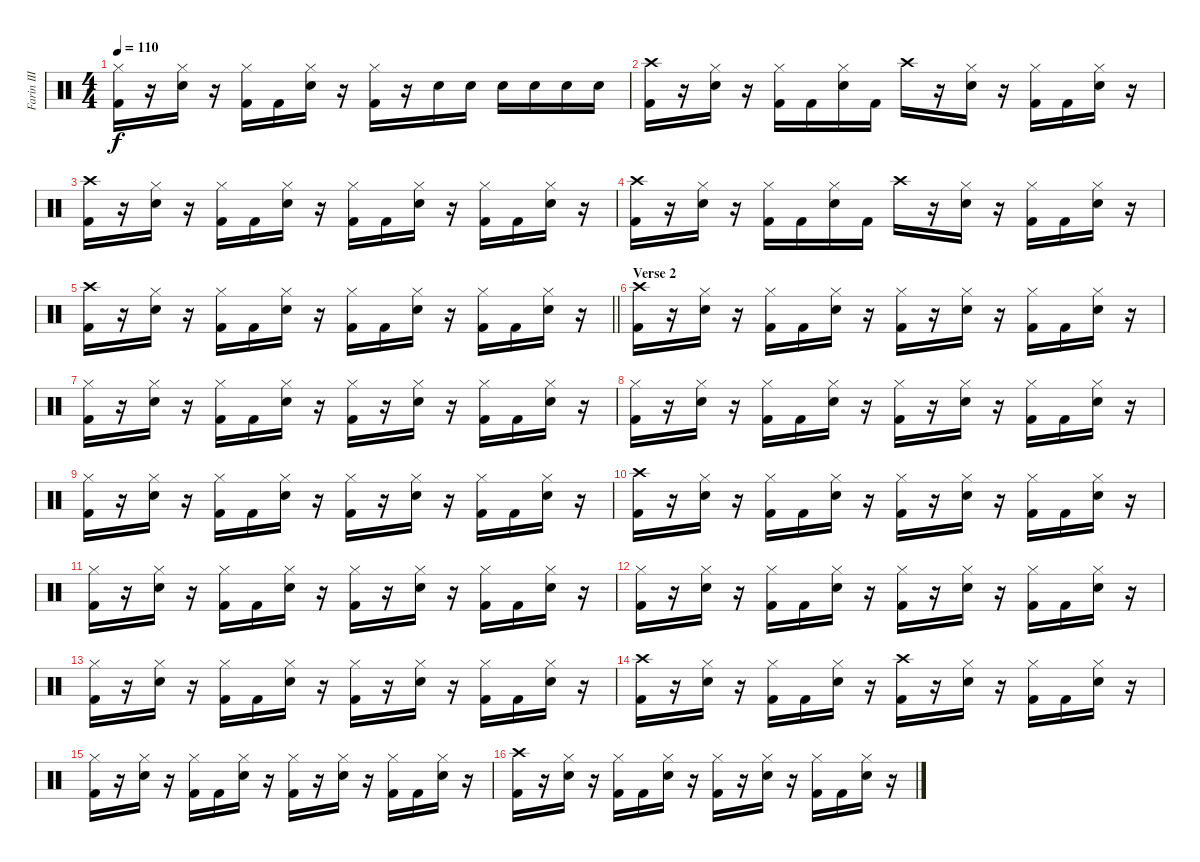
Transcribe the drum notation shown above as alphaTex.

\track ("Farin III" "Farin III") {instrument percussion}
\staff {score}
\articulation defaults
\ts (4 4)
\tempo 110
\clef neutral
\ks c
("Hi-Hat (closed)" "Kick (hit) 2").16{dy f} r.16 ("Hi-Hat (closed)" "Snare (hit) 2").16 r.16 ("Hi-Hat (closed)" "Kick (hit) 2").16 "Kick (hit) 2".16 ("Hi-Hat (closed)" "Snare (hit) 2").16 r.16 ("Hi-Hat (closed)" "Kick (hit) 2").16 r.16 "Snare (hit) 2".16 "Snare (hit) 2".16 "Snare (hit) 2".16 "Snare (hit) 2".16 "Snare (hit) 2".16 "Snare (hit) 2".16 |
("Crash high (hit)" "Kick (hit) 2").16 r.16 ("Hi-Hat (closed)" "Snare (hit) 2").16 r.16 ("Hi-Hat (closed)" "Kick (hit) 2").16 "Kick (hit) 2".16 ("Hi-Hat (closed)" "Snare (hit) 2").16 "Kick (hit) 2".16 "Crash high (hit)".16 r.16 ("Hi-Hat (closed)" "Snare (hit) 2").16 r.16 ("Hi-Hat (closed)" "Kick (hit) 2").16 "Kick (hit) 2".16 ("Hi-Hat (closed)" "Snare (hit) 2").16 r.16 |
("Crash high (hit)" "Kick (hit) 2").16 r.16 ("Hi-Hat (closed)" "Snare (hit) 2").16 r.16 ("Hi-Hat (closed)" "Kick (hit) 2").16 "Kick (hit) 2".16 ("Hi-Hat (closed)" "Snare (hit) 2").16 r.16 ("Hi-Hat (closed)" "Kick (hit) 2").16 "Kick (hit) 2".16 ("Hi-Hat (closed)" "Snare (hit) 2").16 r.16 ("Hi-Hat (closed)" "Kick (hit) 2").16 "Kick (hit) 2".16 ("Hi-Hat (closed)" "Snare (hit) 2").16 r.16 |
("Crash high (hit)" "Kick (hit) 2").16 r.16 ("Hi-Hat (closed)" "Snare (hit) 2").16 r.16 ("Hi-Hat (closed)" "Kick (hit) 2").16 "Kick (hit) 2".16 ("Hi-Hat (closed)" "Snare (hit) 2").16 "Kick (hit) 2".16 "Crash high (hit)".16 r.16 ("Hi-Hat (closed)" "Snare (hit) 2").16 r.16 ("Hi-Hat (closed)" "Kick (hit) 2").16 "Kick (hit) 2".16 ("Hi-Hat (closed)" "Snare (hit) 2").16 r.16 |
\barLineRight lightlight
("Crash high (hit)" "Kick (hit) 2").16 r.16 ("Hi-Hat (closed)" "Snare (hit) 2").16 r.16 ("Hi-Hat (closed)" "Kick (hit) 2").16 "Kick (hit) 2".16 ("Hi-Hat (closed)" "Snare (hit) 2").16 r.16 ("Hi-Hat (closed)" "Kick (hit) 2").16 "Kick (hit) 2".16 ("Hi-Hat (closed)" "Snare (hit) 2").16 r.16 ("Hi-Hat (closed)" "Kick (hit) 2").16 "Kick (hit) 2".16 ("Hi-Hat (closed)" "Snare (hit) 2").16 r.16 |
\section ("" "Verse 2")
("Crash high (hit)" "Kick (hit) 2").16 r.16 ("Hi-Hat (closed)" "Snare (hit) 2").16 r.16 ("Hi-Hat (closed)" "Kick (hit) 2").16 "Kick (hit) 2".16 ("Hi-Hat (closed)" "Snare (hit) 2").16 r.16 ("Hi-Hat (closed)" "Kick (hit) 2").16 r.16 ("Hi-Hat (closed)" "Snare (hit) 2").16 r.16 ("Hi-Hat (closed)" "Kick (hit) 2").16 "Kick (hit) 2".16 ("Hi-Hat (closed)" "Snare (hit) 2").16 r.16 |
("Hi-Hat (closed)" "Kick (hit) 2").16 r.16 ("Hi-Hat (closed)" "Snare (hit) 2").16 r.16 ("Hi-Hat (closed)" "Kick (hit) 2").16 "Kick (hit) 2".16 ("Hi-Hat (closed)" "Snare (hit) 2").16 r.16 ("Hi-Hat (closed)" "Kick (hit) 2").16 r.16 ("Hi-Hat (closed)" "Snare (hit) 2").16 r.16 ("Hi-Hat (closed)" "Kick (hit) 2").16 "Kick (hit) 2".16 ("Hi-Hat (closed)" "Snare (hit) 2").16 r.16 |
("Hi-Hat (closed)" "Kick (hit) 2").16 r.16 ("Hi-Hat (closed)" "Snare (hit) 2").16 r.16 ("Hi-Hat (closed)" "Kick (hit) 2").16 "Kick (hit) 2".16 ("Hi-Hat (closed)" "Snare (hit) 2").16 r.16 ("Hi-Hat (closed)" "Kick (hit) 2").16 r.16 ("Hi-Hat (closed)" "Snare (hit) 2").16 r.16 ("Hi-Hat (closed)" "Kick (hit) 2").16 "Kick (hit) 2".16 ("Hi-Hat (closed)" "Snare (hit) 2").16 r.16 |
("Hi-Hat (closed)" "Kick (hit) 2").16 r.16 ("Hi-Hat (closed)" "Snare (hit) 2").16 r.16 ("Hi-Hat (closed)" "Kick (hit) 2").16 "Kick (hit) 2".16 ("Hi-Hat (closed)" "Snare (hit) 2").16 r.16 ("Hi-Hat (closed)" "Kick (hit) 2").16 r.16 ("Hi-Hat (closed)" "Snare (hit) 2").16 r.16 ("Hi-Hat (closed)" "Kick (hit) 2").16 "Kick (hit) 2".16 ("Hi-Hat (closed)" "Snare (hit) 2").16 r.16 |
("Crash high (hit)" "Kick (hit) 2").16 r.16 ("Hi-Hat (closed)" "Snare (hit) 2").16 r.16 ("Hi-Hat (closed)" "Kick (hit) 2").16 "Kick (hit) 2".16 ("Hi-Hat (closed)" "Snare (hit) 2").16 r.16 ("Hi-Hat (closed)" "Kick (hit) 2").16 r.16 ("Hi-Hat (closed)" "Snare (hit) 2").16 r.16 ("Hi-Hat (closed)" "Kick (hit) 2").16 "Kick (hit) 2".16 ("Hi-Hat (closed)" "Snare (hit) 2").16 r.16 |
("Hi-Hat (closed)" "Kick (hit) 2").16 r.16 ("Hi-Hat (closed)" "Snare (hit) 2").16 r.16 ("Hi-Hat (closed)" "Kick (hit) 2").16 "Kick (hit) 2".16 ("Hi-Hat (closed)" "Snare (hit) 2").16 r.16 ("Hi-Hat (closed)" "Kick (hit) 2").16 r.16 ("Hi-Hat (closed)" "Snare (hit) 2").16 r.16 ("Hi-Hat (closed)" "Kick (hit) 2").16 "Kick (hit) 2".16 ("Hi-Hat (closed)" "Snare (hit) 2").16 r.16 |
("Hi-Hat (closed)" "Kick (hit) 2").16 r.16 ("Hi-Hat (closed)" "Snare (hit) 2").16 r.16 ("Hi-Hat (closed)" "Kick (hit) 2").16 "Kick (hit) 2".16 ("Hi-Hat (closed)" "Snare (hit) 2").16 r.16 ("Hi-Hat (closed)" "Kick (hit) 2").16 r.16 ("Hi-Hat (closed)" "Snare (hit) 2").16 r.16 ("Hi-Hat (closed)" "Kick (hit) 2").16 "Kick (hit) 2".16 ("Hi-Hat (closed)" "Snare (hit) 2").16 r.16 |
("Hi-Hat (closed)" "Kick (hit) 2").16 r.16 ("Hi-Hat (closed)" "Snare (hit) 2").16 r.16 ("Hi-Hat (closed)" "Kick (hit) 2").16 "Kick (hit) 2".16 ("Hi-Hat (closed)" "Snare (hit) 2").16 r.16 ("Hi-Hat (closed)" "Kick (hit) 2").16 r.16 ("Hi-Hat (closed)" "Snare (hit) 2").16 r.16 ("Hi-Hat (closed)" "Kick (hit) 2").16 "Kick (hit) 2".16 ("Hi-Hat (closed)" "Snare (hit) 2").16 r.16 |
("Crash high (hit)" "Kick (hit) 2").16 r.16 ("Hi-Hat (closed)" "Snare (hit) 2").16 r.16 ("Hi-Hat (closed)" "Kick (hit) 2").16 "Kick (hit) 2".16 ("Hi-Hat (closed)" "Snare (hit) 2").16 r.16 ("Crash high (hit)" "Kick (hit) 2").16 r.16 ("Hi-Hat (closed)" "Snare (hit) 2").16 r.16 ("Hi-Hat (closed)" "Kick (hit) 2").16 "Kick (hit) 2".16 ("Hi-Hat (closed)" "Snare (hit) 2").16 r.16 |
("Hi-Hat (closed)" "Kick (hit) 2").16 r.16 ("Hi-Hat (closed)" "Snare (hit) 2").16 r.16 ("Hi-Hat (closed)" "Kick (hit) 2").16 "Kick (hit) 2".16 ("Hi-Hat (closed)" "Snare (hit) 2").16 r.16 ("Hi-Hat (closed)" "Kick (hit) 2").16 r.16 ("Hi-Hat (closed)" "Snare (hit) 2").16 r.16 ("Hi-Hat (closed)" "Kick (hit) 2").16 "Kick (hit) 2".16 ("Hi-Hat (closed)" "Snare (hit) 2").16 r.16 |
("Crash high (hit)" "Kick (hit) 2").16 r.16 ("Hi-Hat (closed)" "Snare (hit) 2").16 r.16 ("Hi-Hat (closed)" "Kick (hit) 2").16 "Kick (hit) 2".16 ("Hi-Hat (closed)" "Snare (hit) 2").16 r.16 ("Hi-Hat (closed)" "Kick (hit) 2").16 r.16 ("Hi-Hat (closed)" "Snare (hit) 2").16 r.16 ("Hi-Hat (closed)" "Kick (hit) 2").16 "Kick (hit) 2".16 ("Hi-Hat (closed)" "Snare (hit) 2").16 r.16
